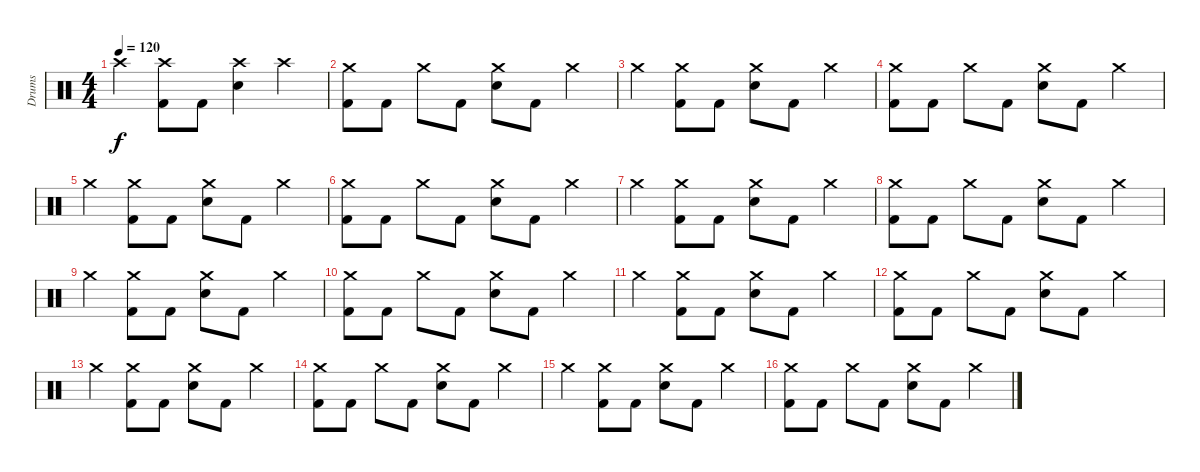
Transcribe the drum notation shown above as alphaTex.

\track ("Drums" "Drums") {instrument percussion}
\staff {score}
\articulation defaults
\ts (4 4)
\tempo 120
\clef neutral
\ks c "Crash high (hit)".4{dy f}
("Crash high (hit)" "Kick (hit) 2").8 "Kick (hit) 2".8 ("Crash high (hit)" "Snare (hit) 2").4 "Crash high (hit)".4 |
("Crash medium (hit)" "Kick (hit) 2").8 "Kick (hit) 2".8 "Crash medium (hit)".8 "Kick (hit) 2".8 ("Crash medium (hit)" "Snare (hit) 2").8 "Kick (hit) 2".8 "Crash medium (hit)".4 |
"Crash medium (hit)".4 ("Crash medium (hit)" "Kick (hit) 2").8 "Kick (hit) 2".8 ("Crash medium (hit)" "Snare (hit) 2").8 "Kick (hit) 2".8 "Crash medium (hit)".4 |
("Crash medium (hit)" "Kick (hit) 2").8 "Kick (hit) 2".8 "Crash medium (hit)".8 "Kick (hit) 2".8 ("Crash medium (hit)" "Snare (hit) 2").8 "Kick (hit) 2".8 "Crash medium (hit)".4 |
"Crash medium (hit)".4 ("Crash medium (hit)" "Kick (hit) 2").8 "Kick (hit) 2".8 ("Crash medium (hit)" "Snare (hit) 2").8 "Kick (hit) 2".8 "Crash medium (hit)".4 |
("Crash medium (hit)" "Kick (hit) 2").8 "Kick (hit) 2".8 "Crash medium (hit)".8 "Kick (hit) 2".8 ("Crash medium (hit)" "Snare (hit) 2").8 "Kick (hit) 2".8 "Crash medium (hit)".4 |
"Crash medium (hit)".4 ("Crash medium (hit)" "Kick (hit) 2").8 "Kick (hit) 2".8 ("Crash medium (hit)" "Snare (hit) 2").8 "Kick (hit) 2".8 "Crash medium (hit)".4 |
("Crash medium (hit)" "Kick (hit) 2").8 "Kick (hit) 2".8 "Crash medium (hit)".8 "Kick (hit) 2".8 ("Crash medium (hit)" "Snare (hit) 2").8 "Kick (hit) 2".8 "Crash medium (hit)".4 |
"Crash medium (hit)".4 ("Crash medium (hit)" "Kick (hit) 2").8 "Kick (hit) 2".8 ("Crash medium (hit)" "Snare (hit) 2").8 "Kick (hit) 2".8 "Crash medium (hit)".4 |
("Crash medium (hit)" "Kick (hit) 2").8 "Kick (hit) 2".8 "Crash medium (hit)".8 "Kick (hit) 2".8 ("Crash medium (hit)" "Snare (hit) 2").8 "Kick (hit) 2".8 "Crash medium (hit)".4 |
"Crash medium (hit)".4 ("Crash medium (hit)" "Kick (hit) 2").8 "Kick (hit) 2".8 ("Crash medium (hit)" "Snare (hit) 2").8 "Kick (hit) 2".8 "Crash medium (hit)".4 |
("Crash medium (hit)" "Kick (hit) 2").8 "Kick (hit) 2".8 "Crash medium (hit)".8 "Kick (hit) 2".8 ("Crash medium (hit)" "Snare (hit) 2").8 "Kick (hit) 2".8 "Crash medium (hit)".4 |
"Crash medium (hit)".4 ("Crash medium (hit)" "Kick (hit) 2").8 "Kick (hit) 2".8 ("Crash medium (hit)" "Snare (hit) 2").8 "Kick (hit) 2".8 "Crash medium (hit)".4 |
("Crash medium (hit)" "Kick (hit) 2").8 "Kick (hit) 2".8 "Crash medium (hit)".8 "Kick (hit) 2".8 ("Crash medium (hit)" "Snare (hit) 2").8 "Kick (hit) 2".8 "Crash medium (hit)".4 |
"Crash medium (hit)".4 ("Crash medium (hit)" "Kick (hit) 2").8 "Kick (hit) 2".8 ("Crash medium (hit)" "Snare (hit) 2").8 "Kick (hit) 2".8 "Crash medium (hit)".4 |
("Crash medium (hit)" "Kick (hit) 2").8 "Kick (hit) 2".8 "Crash medium (hit)".8 "Kick (hit) 2".8 ("Crash medium (hit)" "Snare (hit) 2").8 "Kick (hit) 2".8 "Crash medium (hit)".4
